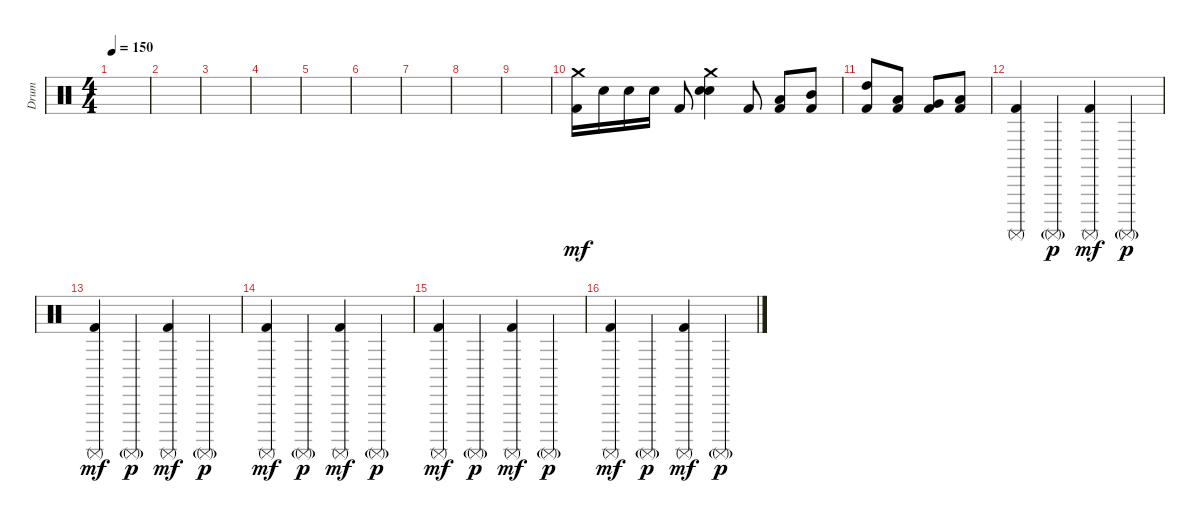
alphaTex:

\track ("Drum" "Drum") {instrument percussion}
\staff {score}
\articulation defaults
\ts (4 4)
\tempo 150
\clef neutral
\ks c
|
|
|
|
|
|
|
|
|
("Crash medium (hit)" "Kick (hit) 2").16{dy mf} "Snare (hit) 2".16 "Snare (hit) 2".16 "Snare (hit) 2".16 "Kick (hit) 2".8 ("Crash medium (hit)" "Snare (hit) 2" "Electric Snare (hit)").4 "Kick (hit) 2".8 ("Low Tom (hit)" "Kick (hit) 2").8 ("Mid Tom (hit)" "Kick (hit) 2").8 |
("High Tom (hit)" "Kick (hit) 2").8 ("Low Tom (hit)" "Kick (hit) 2").8 ("Very Low Tom (hit)" "Kick (hit) 2").8 ("Low Floor Tom (hit)" "Kick (hit) 2").8 |
("Surdo (mute)" "Kick (hit) 2").4 "Surdo (mute)"{g}.4{dy p} ("Surdo (mute)" "Kick (hit) 2").4{dy mf} "Surdo (mute)"{g}.4{dy p} |
("Surdo (mute)" "Kick (hit) 2").4{dy mf} "Surdo (mute)"{g}.4{dy p} ("Surdo (mute)" "Kick (hit) 2").4{dy mf} "Surdo (mute)"{g}.4{dy p} |
("Surdo (mute)" "Kick (hit) 2").4{dy mf} "Surdo (mute)"{g}.4{dy p} ("Surdo (mute)" "Kick (hit) 2").4{dy mf} "Surdo (mute)"{g}.4{dy p} |
("Surdo (mute)" "Kick (hit) 2").4{dy mf} "Surdo (mute)"{g}.4{dy p} ("Surdo (mute)" "Kick (hit) 2").4{dy mf} "Surdo (mute)"{g}.4{dy p} |
("Surdo (mute)" "Kick (hit) 2").4{dy mf} "Surdo (mute)"{g}.4{dy p} ("Surdo (mute)" "Kick (hit) 2").4{dy mf} "Surdo (mute)"{g}.4{dy p}
